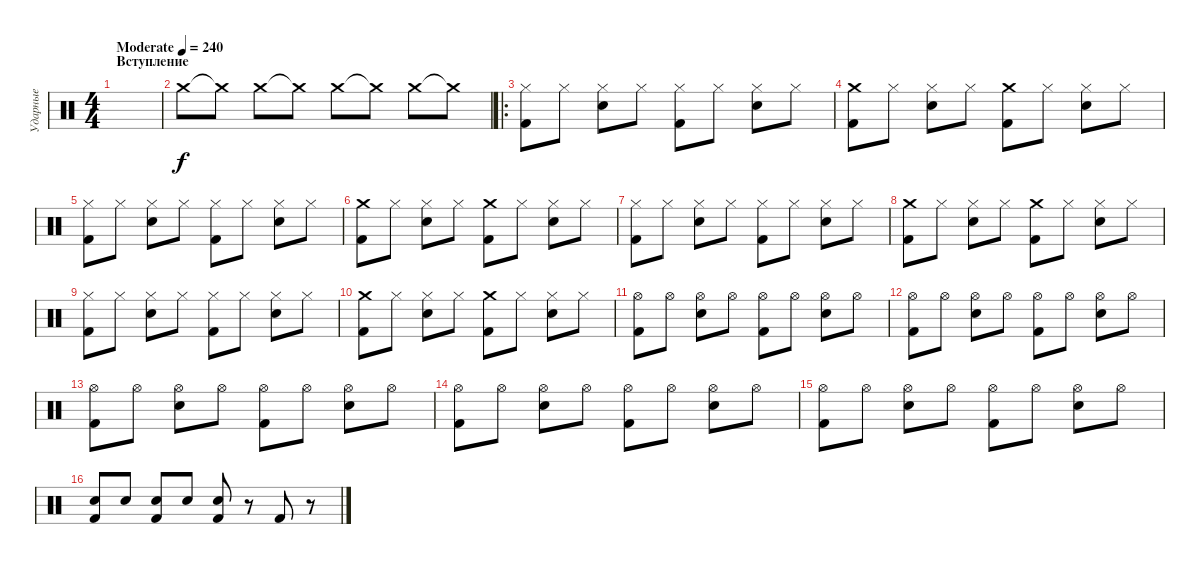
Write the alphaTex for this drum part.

\track ("Ударные" "Ударные") {instrument percussion}
\staff {score}
\articulation defaults
\ts (4 4)
\section ("" "Вступление")
\tempo (240 "Moderate")
\clef neutral
\ks c
|
"Crash medium (hit)".8 "Crash medium (hit)"{t}.8 "Crash medium (hit)".8 "Crash medium (hit)"{t}.8 "Crash medium (hit)".8 "Crash medium (hit)"{t}.8 "Crash medium (hit)".8 "Crash medium (hit)"{t}.8 |
\ro
("Hi-Hat (closed)" "Kick (hit) 2").8 "Hi-Hat (closed)".8 ("Hi-Hat (closed)" "Snare (hit) 2").8 "Hi-Hat (closed)".8 ("Hi-Hat (closed)" "Kick (hit) 2").8 "Hi-Hat (closed)".8 ("Hi-Hat (closed)" "Snare (hit) 2").8 "Hi-Hat (closed)".8 |
("Crash medium (hit)" "Kick (hit) 2").8 "Hi-Hat (closed)".8 ("Hi-Hat (closed)" "Snare (hit) 2").8 "Hi-Hat (closed)".8 ("Crash medium (hit)" "Kick (hit) 2").8 "Hi-Hat (closed)".8 ("Hi-Hat (closed)" "Snare (hit) 2").8 "Hi-Hat (closed)".8 |
("Hi-Hat (closed)" "Kick (hit) 2").8 "Hi-Hat (closed)".8 ("Hi-Hat (closed)" "Snare (hit) 2").8 "Hi-Hat (closed)".8 ("Hi-Hat (closed)" "Kick (hit) 2").8 "Hi-Hat (closed)".8 ("Hi-Hat (closed)" "Snare (hit) 2").8 "Hi-Hat (closed)".8 |
("Crash medium (hit)" "Kick (hit) 2").8 "Hi-Hat (closed)".8 ("Hi-Hat (closed)" "Snare (hit) 2").8 "Hi-Hat (closed)".8 ("Crash medium (hit)" "Kick (hit) 2").8 "Hi-Hat (closed)".8 ("Hi-Hat (closed)" "Snare (hit) 2").8 "Hi-Hat (closed)".8 |
("Hi-Hat (closed)" "Kick (hit) 2").8 "Hi-Hat (closed)".8 ("Hi-Hat (closed)" "Snare (hit) 2").8 "Hi-Hat (closed)".8 ("Hi-Hat (closed)" "Kick (hit) 2").8 "Hi-Hat (closed)".8 ("Hi-Hat (closed)" "Snare (hit) 2").8 "Hi-Hat (closed)".8 |
("Crash medium (hit)" "Kick (hit) 2").8 "Hi-Hat (closed)".8 ("Hi-Hat (closed)" "Snare (hit) 2").8 "Hi-Hat (closed)".8 ("Crash medium (hit)" "Kick (hit) 2").8 "Hi-Hat (closed)".8 ("Hi-Hat (closed)" "Snare (hit) 2").8 "Hi-Hat (closed)".8 |
("Hi-Hat (closed)" "Kick (hit) 2").8 "Hi-Hat (closed)".8 ("Hi-Hat (closed)" "Snare (hit) 2").8 "Hi-Hat (closed)".8 ("Hi-Hat (closed)" "Kick (hit) 2").8 "Hi-Hat (closed)".8 ("Hi-Hat (closed)" "Snare (hit) 2").8 "Hi-Hat (closed)".8 |
("Crash medium (hit)" "Kick (hit) 2").8 "Hi-Hat (closed)".8 ("Hi-Hat (closed)" "Snare (hit) 2").8 "Hi-Hat (closed)".8 ("Crash medium (hit)" "Kick (hit) 2").8 "Hi-Hat (closed)".8 ("Hi-Hat (closed)" "Snare (hit) 2").8 "Hi-Hat (closed)".8 |
("Hi-Hat (open)" "Kick (hit) 2").8 "Hi-Hat (open)".8 ("Hi-Hat (open)" "Snare (hit) 2").8 "Hi-Hat (open)".8 ("Hi-Hat (open)" "Kick (hit) 2").8 "Hi-Hat (open)".8 ("Hi-Hat (open)" "Snare (hit) 2").8 "Hi-Hat (open)".8 |
("Hi-Hat (open)" "Kick (hit) 2").8 "Hi-Hat (open)".8 ("Hi-Hat (open)" "Snare (hit) 2").8 "Hi-Hat (open)".8 ("Hi-Hat (open)" "Kick (hit) 2").8 "Hi-Hat (open)".8 ("Hi-Hat (open)" "Snare (hit) 2").8 "Hi-Hat (open)".8 |
("Hi-Hat (open)" "Kick (hit) 2").8 "Hi-Hat (open)".8 ("Hi-Hat (open)" "Snare (hit) 2").8 "Hi-Hat (open)".8 ("Hi-Hat (open)" "Kick (hit) 2").8 "Hi-Hat (open)".8 ("Hi-Hat (open)" "Snare (hit) 2").8 "Hi-Hat (open)".8 |
("Hi-Hat (open)" "Kick (hit) 2").8 "Hi-Hat (open)".8 ("Hi-Hat (open)" "Snare (hit) 2").8 "Hi-Hat (open)".8 ("Hi-Hat (open)" "Kick (hit) 2").8 "Hi-Hat (open)".8 ("Hi-Hat (open)" "Snare (hit) 2").8 "Hi-Hat (open)".8 |
("Hi-Hat (open)" "Kick (hit) 2").8 "Hi-Hat (open)".8 ("Hi-Hat (open)" "Snare (hit) 2").8 "Hi-Hat (open)".8 ("Hi-Hat (open)" "Kick (hit) 2").8 "Hi-Hat (open)".8 ("Hi-Hat (open)" "Snare (hit) 2").8 "Hi-Hat (open)".8 |
("Snare (hit) 2" "Kick (hit) 2").8 "Snare (hit) 2".8 ("Snare (hit) 2" "Kick (hit) 2").8 "Snare (hit) 2".8 ("Snare (hit) 2" "Kick (hit) 2").8 r.8 "Kick (hit) 2".8 r.8
